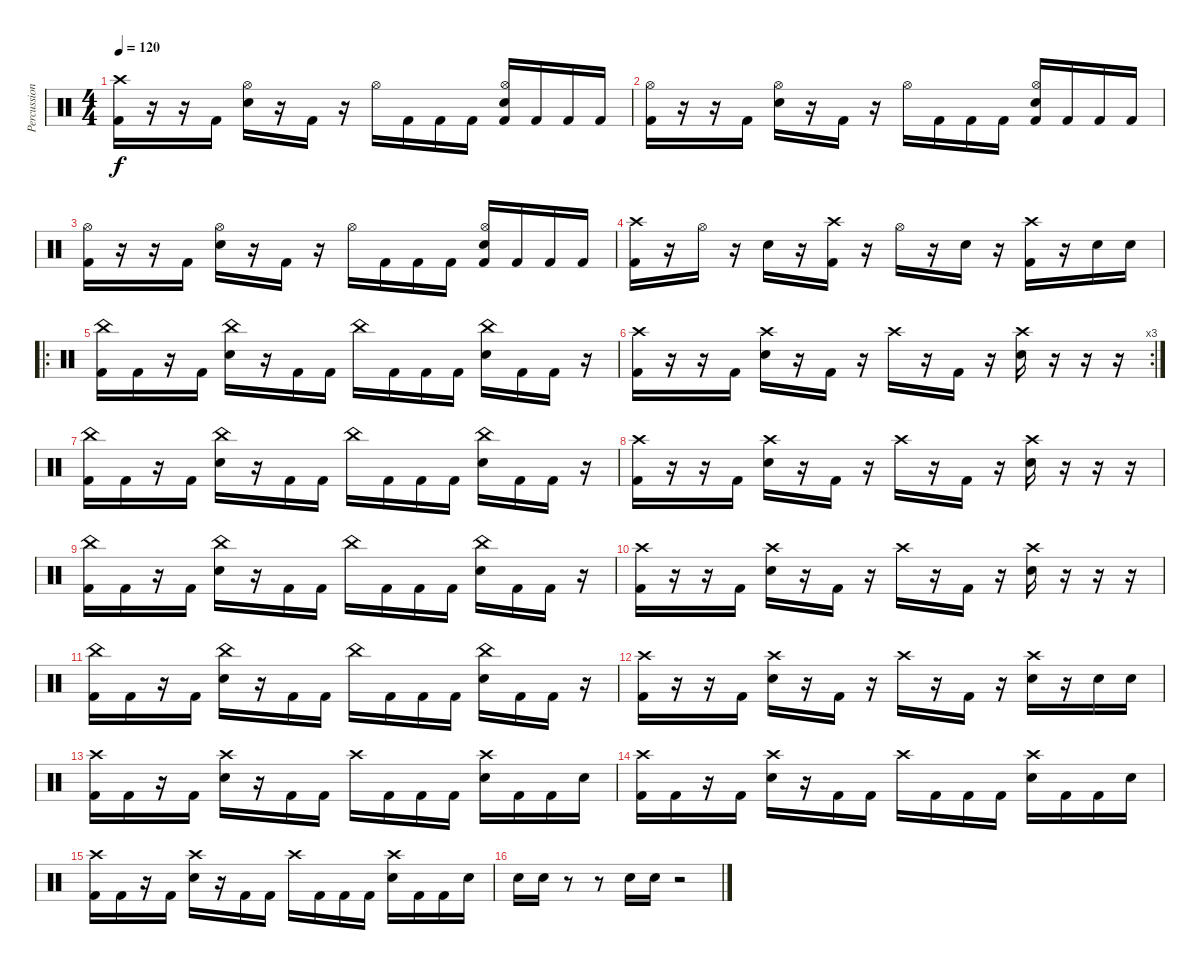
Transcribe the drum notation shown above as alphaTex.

\track ("Percussion" "Percussion") {instrument percussion}
\staff {score}
\articulation defaults
\ts (4 4)
\tempo 120
\clef neutral
\ks c
("Crash high (hit)" "Kick (hit) 2").16{dy f} r.16 r.16 "Kick (hit) 2".16 ("Hi-Hat (open)" "Snare (hit) 2").16 r.16 "Kick (hit) 2".16 r.16 "Hi-Hat (open)".16 "Kick (hit) 2".16 "Kick (hit) 2".16 "Kick (hit) 2".16 ("Hi-Hat (open)" "Snare (hit) 2" "Kick (hit) 2").16 "Kick (hit) 2".16 "Kick (hit) 2".16 "Kick (hit) 2".16 |
("Hi-Hat (open)" "Kick (hit) 2").16 r.16 r.16 "Kick (hit) 2".16 ("Hi-Hat (open)" "Snare (hit) 2").16 r.16 "Kick (hit) 2".16 r.16 "Hi-Hat (open)".16 "Kick (hit) 2".16 "Kick (hit) 2".16 "Kick (hit) 2".16 ("Hi-Hat (open)" "Snare (hit) 2" "Kick (hit) 2").16 "Kick (hit) 2".16 "Kick (hit) 2".16 "Kick (hit) 2".16 |
("Hi-Hat (open)" "Kick (hit) 2").16 r.16 r.16 "Kick (hit) 2".16 ("Hi-Hat (open)" "Snare (hit) 2").16 r.16 "Kick (hit) 2".16 r.16 "Hi-Hat (open)".16 "Kick (hit) 2".16 "Kick (hit) 2".16 "Kick (hit) 2".16 ("Hi-Hat (open)" "Snare (hit) 2" "Kick (hit) 2").16 "Kick (hit) 2".16 "Kick (hit) 2".16 "Kick (hit) 2".16 |
("Crash high (hit)" "Kick (hit) 2").16 r.16 "Hi-Hat (open)".16 r.16 "Snare (hit) 2".16 r.16 ("Crash high (hit)" "Kick (hit) 2").16 r.16 "Hi-Hat (open)".16 r.16 "Snare (hit) 2".16 r.16 ("Crash high (hit)" "Kick (hit) 2").16 r.16 "Snare (hit) 2".16 "Snare (hit) 2".16 |
\ro
("China (hit)" "Kick (hit) 2").16 "Kick (hit) 2".16 r.16 "Kick (hit) 2".16 ("China (hit)" "Snare (hit) 2").16 r.16 "Kick (hit) 2".16 "Kick (hit) 2".16 "China (hit)".16 "Kick (hit) 2".16 "Kick (hit) 2".16 "Kick (hit) 2".16 ("China (hit)" "Snare (hit) 2").16 "Kick (hit) 2".16 "Kick (hit) 2".16 r.16 |
\rc 3
("Crash high (hit)" "Kick (hit) 2").16 r.16 r.16 "Kick (hit) 2".16 ("Crash high (hit)" "Snare (hit) 2").16 r.16 "Kick (hit) 2".16 r.16 "Crash high (hit)".16 r.16 "Kick (hit) 2".16 r.16 ("Crash high (hit)" "Snare (hit) 2").16 r.16 r.16 r.16 |
("China (hit)" "Kick (hit) 2").16 "Kick (hit) 2".16 r.16 "Kick (hit) 2".16 ("China (hit)" "Snare (hit) 2").16 r.16 "Kick (hit) 2".16 "Kick (hit) 2".16 "China (hit)".16 "Kick (hit) 2".16 "Kick (hit) 2".16 "Kick (hit) 2".16 ("China (hit)" "Snare (hit) 2").16 "Kick (hit) 2".16 "Kick (hit) 2".16 r.16 |
("Crash high (hit)" "Kick (hit) 2").16 r.16 r.16 "Kick (hit) 2".16 ("Crash high (hit)" "Snare (hit) 2").16 r.16 "Kick (hit) 2".16 r.16 "Crash high (hit)".16 r.16 "Kick (hit) 2".16 r.16 ("Crash high (hit)" "Snare (hit) 2").16 r.16 r.16 r.16 |
("China (hit)" "Kick (hit) 2").16 "Kick (hit) 2".16 r.16 "Kick (hit) 2".16 ("China (hit)" "Snare (hit) 2").16 r.16 "Kick (hit) 2".16 "Kick (hit) 2".16 "China (hit)".16 "Kick (hit) 2".16 "Kick (hit) 2".16 "Kick (hit) 2".16 ("China (hit)" "Snare (hit) 2").16 "Kick (hit) 2".16 "Kick (hit) 2".16 r.16 |
("Crash high (hit)" "Kick (hit) 2").16 r.16 r.16 "Kick (hit) 2".16 ("Crash high (hit)" "Snare (hit) 2").16 r.16 "Kick (hit) 2".16 r.16 "Crash high (hit)".16 r.16 "Kick (hit) 2".16 r.16 ("Crash high (hit)" "Snare (hit) 2").16 r.16 r.16 r.16 |
("China (hit)" "Kick (hit) 2").16 "Kick (hit) 2".16 r.16 "Kick (hit) 2".16 ("China (hit)" "Snare (hit) 2").16 r.16 "Kick (hit) 2".16 "Kick (hit) 2".16 "China (hit)".16 "Kick (hit) 2".16 "Kick (hit) 2".16 "Kick (hit) 2".16 ("China (hit)" "Snare (hit) 2").16 "Kick (hit) 2".16 "Kick (hit) 2".16 r.16 |
("Crash high (hit)" "Kick (hit) 2").16 r.16 r.16 "Kick (hit) 2".16 ("Crash high (hit)" "Snare (hit) 2").16 r.16 "Kick (hit) 2".16 r.16 "Crash high (hit)".16 r.16 "Kick (hit) 2".16 r.16 ("Crash high (hit)" "Snare (hit) 2").16 r.16 "Snare (hit) 2".16 "Snare (hit) 2".16 |
("Crash high (hit)" "Kick (hit) 2").16 "Kick (hit) 2".16 r.16 "Kick (hit) 2".16 ("Crash high (hit)" "Snare (hit) 2").16 r.16 "Kick (hit) 2".16 "Kick (hit) 2".16 "Crash high (hit)".16 "Kick (hit) 2".16 "Kick (hit) 2".16 "Kick (hit) 2".16 ("Crash high (hit)" "Snare (hit) 2").16 "Kick (hit) 2".16 "Kick (hit) 2".16 "Snare (hit) 2".16 |
("Crash high (hit)" "Kick (hit) 2").16 "Kick (hit) 2".16 r.16 "Kick (hit) 2".16 ("Crash high (hit)" "Snare (hit) 2").16 r.16 "Kick (hit) 2".16 "Kick (hit) 2".16 "Crash high (hit)".16 "Kick (hit) 2".16 "Kick (hit) 2".16 "Kick (hit) 2".16 ("Crash high (hit)" "Snare (hit) 2").16 "Kick (hit) 2".16 "Kick (hit) 2".16 "Snare (hit) 2".16 |
("Crash high (hit)" "Kick (hit) 2").16 "Kick (hit) 2".16 r.16 "Kick (hit) 2".16 ("Crash high (hit)" "Snare (hit) 2").16 r.16 "Kick (hit) 2".16 "Kick (hit) 2".16 "Crash high (hit)".16 "Kick (hit) 2".16 "Kick (hit) 2".16 "Kick (hit) 2".16 ("Crash high (hit)" "Snare (hit) 2").16 "Kick (hit) 2".16 "Kick (hit) 2".16 "Snare (hit) 2".16 |
"Snare (hit) 2".16 "Snare (hit) 2".16 r.8 r.8 "Snare (hit) 2".16 "Snare (hit) 2".16 r.2
